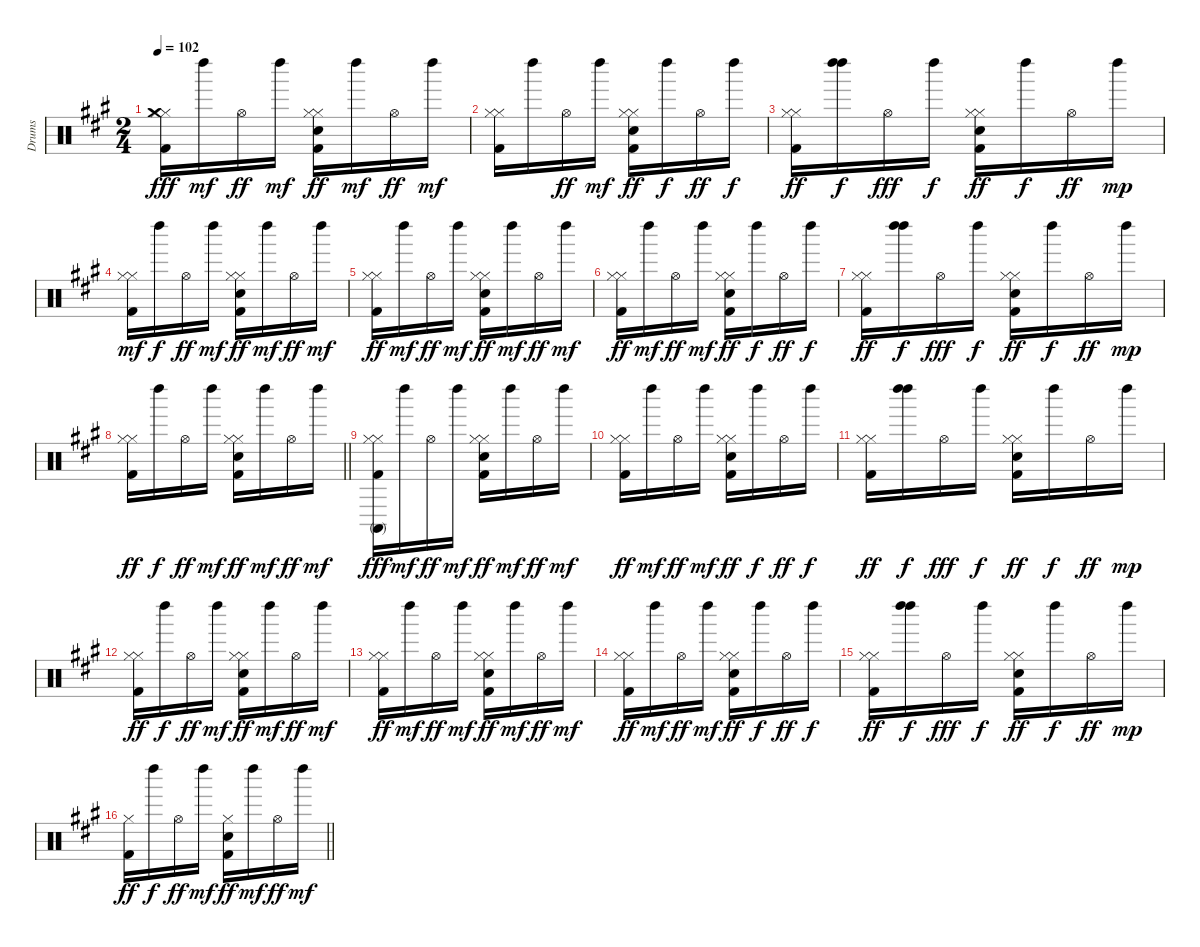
\track ("Drums" "Drums") {instrument percussion}
\staff {score}
\articulation defaults
\ts (2 4)
\tempo 102
\clef neutral
\ks a
("Kick (hit) 2" "Hi-Hat (closed)" "Hi-Hat (closed)" "Crash medium (hit)").16{dy fff} "Left Maraca (hit)".16{dy mf} "Hi-Hat (open)".16{dy ff} "Left Maraca (hit)".16{dy mf} ("Kick (hit) 2" "Electric Snare (hit)" "Hi-Hat (closed)" "Hi-Hat (closed)").16{dy ff} "Left Maraca (hit)".16{dy mf} "Hi-Hat (open)".16{dy ff} "Left Maraca (hit)".16{dy mf} |
("Kick (hit) 2" "Hi-Hat (closed)" "Hi-Hat (closed)").16 "Left Maraca (hit)".16 "Hi-Hat (open)".16{dy ff} "Left Maraca (hit)".16{dy mf} ("Kick (hit) 2" "Electric Snare (hit)" "Hi-Hat (closed)" "Hi-Hat (closed)").16{dy ff} "Left Maraca (hit)".16{dy f} "Hi-Hat (open)".16{dy ff} "Left Maraca (hit)".16{dy f} |
("Kick (hit) 2" "Hi-Hat (closed)" "Hi-Hat (closed)").16{dy ff} ("Left Maraca (hit)" "Left Maraca (hit)").16{dy f} "Hi-Hat (open)".16{dy fff} "Left Maraca (hit)".16{dy f} ("Kick (hit) 2" "Electric Snare (hit)" "Hi-Hat (closed)" "Hi-Hat (closed)").16{dy ff} "Left Maraca (hit)".16{dy f} "Hi-Hat (open)".16{dy ff} "Left Maraca (hit)".16{dy mp} |
("Kick (hit) 2" "Hi-Hat (closed)" "Hi-Hat (closed)").16{dy mf} "Left Maraca (hit)".16{dy f} "Hi-Hat (open)".16{dy ff} "Left Maraca (hit)".16{dy mf} ("Kick (hit) 2" "Electric Snare (hit)" "Hi-Hat (closed)" "Hi-Hat (closed)").16{dy ff} "Left Maraca (hit)".16{dy mf} "Hi-Hat (open)".16{dy ff} "Left Maraca (hit)".16{dy mf} |
("Kick (hit) 2" "Hi-Hat (closed)" "Hi-Hat (closed)").16{dy ff} "Left Maraca (hit)".16{dy mf} "Hi-Hat (open)".16{dy ff} "Left Maraca (hit)".16{dy mf} ("Kick (hit) 2" "Electric Snare (hit)" "Hi-Hat (closed)" "Hi-Hat (closed)").16{dy ff} "Left Maraca (hit)".16{dy mf} "Hi-Hat (open)".16{dy ff} "Left Maraca (hit)".16{dy mf} |
("Kick (hit) 2" "Hi-Hat (closed)" "Hi-Hat (closed)").16{dy ff} "Left Maraca (hit)".16{dy mf} "Hi-Hat (open)".16{dy ff} "Left Maraca (hit)".16{dy mf} ("Kick (hit) 2" "Electric Snare (hit)" "Hi-Hat (closed)" "Hi-Hat (closed)").16{dy ff} "Left Maraca (hit)".16{dy f} "Hi-Hat (open)".16{dy ff} "Left Maraca (hit)".16{dy f} |
("Kick (hit) 2" "Hi-Hat (closed)" "Hi-Hat (closed)").16{dy ff} ("Left Maraca (hit)" "Left Maraca (hit)").16{dy f} "Hi-Hat (open)".16{dy fff} "Left Maraca (hit)".16{dy f} ("Kick (hit) 2" "Electric Snare (hit)" "Hi-Hat (closed)" "Hi-Hat (closed)").16{dy ff} "Left Maraca (hit)".16{dy f} "Hi-Hat (open)".16{dy ff} "Left Maraca (hit)".16{dy mp} |
\barLineRight lightlight
("Kick (hit) 2" "Hi-Hat (closed)" "Hi-Hat (closed)").16{dy ff} "Left Maraca (hit)".16{dy f} "Hi-Hat (open)".16{dy ff} "Left Maraca (hit)".16{dy mf} ("Kick (hit) 2" "Electric Snare (hit)" "Hi-Hat (closed)" "Hi-Hat (closed)").16{dy ff} "Left Maraca (hit)".16{dy mf} "Hi-Hat (open)".16{dy ff} "Left Maraca (hit)".16{dy mf} |
("Kick (hit) 2" "Hi-Hat (closed)" "Hi-Hat (closed)" "Conga high (mute)").16{dy fff} "Left Maraca (hit)".16{dy mf} "Hi-Hat (open)".16{dy ff} "Left Maraca (hit)".16{dy mf} ("Kick (hit) 2" "Electric Snare (hit)" "Hi-Hat (closed)" "Hi-Hat (closed)").16{dy ff} "Left Maraca (hit)".16{dy mf} "Hi-Hat (open)".16{dy ff} "Left Maraca (hit)".16{dy mf} |
("Kick (hit) 2" "Hi-Hat (closed)" "Hi-Hat (closed)").16{dy ff} "Left Maraca (hit)".16{dy mf} "Hi-Hat (open)".16{dy ff} "Left Maraca (hit)".16{dy mf} ("Kick (hit) 2" "Electric Snare (hit)" "Hi-Hat (closed)" "Hi-Hat (closed)").16{dy ff} "Left Maraca (hit)".16{dy f} "Hi-Hat (open)".16{dy ff} "Left Maraca (hit)".16{dy f} |
("Kick (hit) 2" "Hi-Hat (closed)" "Hi-Hat (closed)").16{dy ff} ("Left Maraca (hit)" "Left Maraca (hit)").16{dy f} "Hi-Hat (open)".16{dy fff} "Left Maraca (hit)".16{dy f} ("Kick (hit) 2" "Electric Snare (hit)" "Hi-Hat (closed)" "Hi-Hat (closed)").16{dy ff} "Left Maraca (hit)".16{dy f} "Hi-Hat (open)".16{dy ff} "Left Maraca (hit)".16{dy mp} |
("Kick (hit) 2" "Hi-Hat (closed)" "Hi-Hat (closed)").16{dy ff} "Left Maraca (hit)".16{dy f} "Hi-Hat (open)".16{dy ff} "Left Maraca (hit)".16{dy mf} ("Kick (hit) 2" "Electric Snare (hit)" "Hi-Hat (closed)" "Hi-Hat (closed)").16{dy ff} "Left Maraca (hit)".16{dy mf} "Hi-Hat (open)".16{dy ff} "Left Maraca (hit)".16{dy mf} |
("Kick (hit) 2" "Hi-Hat (closed)" "Hi-Hat (closed)").16{dy ff} "Left Maraca (hit)".16{dy mf} "Hi-Hat (open)".16{dy ff} "Left Maraca (hit)".16{dy mf} ("Kick (hit) 2" "Electric Snare (hit)" "Hi-Hat (closed)" "Hi-Hat (closed)").16{dy ff} "Left Maraca (hit)".16{dy mf} "Hi-Hat (open)".16{dy ff} "Left Maraca (hit)".16{dy mf} |
("Kick (hit) 2" "Hi-Hat (closed)" "Hi-Hat (closed)").16{dy ff} "Left Maraca (hit)".16{dy mf} "Hi-Hat (open)".16{dy ff} "Left Maraca (hit)".16{dy mf} ("Kick (hit) 2" "Electric Snare (hit)" "Hi-Hat (closed)" "Hi-Hat (closed)").16{dy ff} "Left Maraca (hit)".16{dy f} "Hi-Hat (open)".16{dy ff} "Left Maraca (hit)".16{dy f} |
("Kick (hit) 2" "Hi-Hat (closed)" "Hi-Hat (closed)").16{dy ff} ("Left Maraca (hit)" "Left Maraca (hit)").16{dy f} "Hi-Hat (open)".16{dy fff} "Left Maraca (hit)".16{dy f} ("Kick (hit) 2" "Electric Snare (hit)" "Hi-Hat (closed)" "Hi-Hat (closed)").16{dy ff} "Left Maraca (hit)".16{dy f} "Hi-Hat (open)".16{dy ff} "Left Maraca (hit)".16{dy mp} |
\barLineRight lightlight
("Kick (hit) 2" "Hi-Hat (closed)").16{dy ff} "Left Maraca (hit)".16{dy f} "Hi-Hat (open)".16{dy ff} "Left Maraca (hit)".16{dy mf} ("Kick (hit) 2" "Electric Snare (hit)" "Hi-Hat (closed)").16{dy ff} "Left Maraca (hit)".16{dy mf} "Hi-Hat (open)".16{dy ff} "Left Maraca (hit)".16{dy mf}
